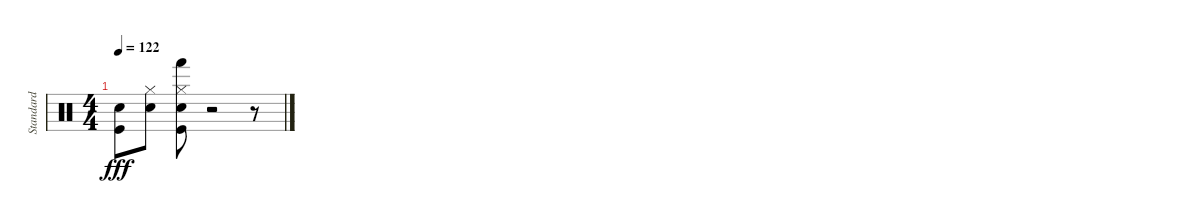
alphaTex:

\track ("Standard" "Standard") {instrument percussion}
\staff {score}
\articulation defaults
\ts (4 4)
\tempo 122
\clef neutral
\ks c
("Electric Snare (hit)" "Kick (hit)").8{dy fff} ("Electric Snare (hit)" "Hi-Hat (closed)").8 ("Hi-Hat (closed)" "Kick (hit)" "Electric Snare (hit)" "Hand (hit)").8 r.2 r.8
